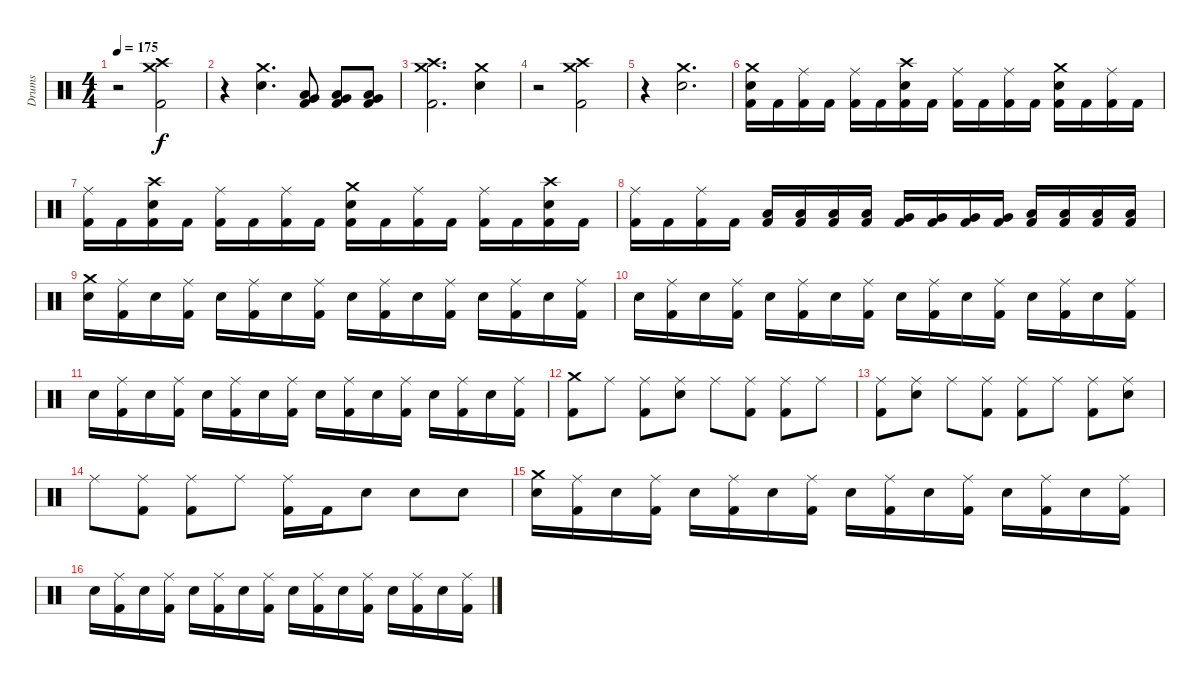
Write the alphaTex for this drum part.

\track ("Drums" "Drums") {instrument percussion}
\staff {score}
\articulation defaults
\ts (4 4)
\tempo 175
\clef neutral
\ks c
r.2{dy f} ("Crash medium (hit)" "Crash high (hit)" "Kick (hit) 2").2 |
r.4 ("Crash medium (hit)" "Electric Snare (hit)").4{d} ("Low Floor Tom (hit)" "Very Low Tom (hit)" "Kick (hit) 2").8 ("Low Floor Tom (hit)" "Very Low Tom (hit)" "Kick (hit) 2").8 ("Low Floor Tom (hit)" "Very Low Tom (hit)" "Kick (hit) 2").8 |
("Crash medium (hit)" "Crash high (hit)" "Kick (hit) 2").2{d} ("Crash medium (hit)" "Electric Snare (hit)").4 |
r.2 ("Crash medium (hit)" "Crash high (hit)" "Kick (hit) 2").2 |
r.4 ("Crash medium (hit)" "Electric Snare (hit)").2{d} |
("Crash medium (hit)" "Electric Snare (hit)" "Kick (hit) 2").16 "Kick (hit) 2".16 ("Ride (middle)" "Kick (hit) 2").16 "Kick (hit) 2".16 ("Ride (middle)" "Kick (hit) 2").16 "Kick (hit) 2".16 ("Crash high (hit)" "Electric Snare (hit)" "Kick (hit) 2").16 "Kick (hit) 2".16 ("Ride (middle)" "Kick (hit) 2").16 "Kick (hit) 2".16 ("Ride (middle)" "Kick (hit) 2").16 "Kick (hit) 2".16 ("Crash medium (hit)" "Electric Snare (hit)" "Kick (hit) 2").16 "Kick (hit) 2".16 ("Ride (middle)" "Kick (hit) 2").16 "Kick (hit) 2".16 |
("Ride (middle)" "Kick (hit) 2").16 "Kick (hit) 2".16 ("Crash high (hit)" "Electric Snare (hit)" "Kick (hit) 2").16 "Kick (hit) 2".16 ("Ride (middle)" "Kick (hit) 2").16 "Kick (hit) 2".16 ("Ride (middle)" "Kick (hit) 2").16 "Kick (hit) 2".16 ("Crash medium (hit)" "Electric Snare (hit)" "Kick (hit) 2").16 "Kick (hit) 2".16 ("Ride (middle)" "Kick (hit) 2").16 "Kick (hit) 2".16 ("Ride (middle)" "Kick (hit) 2").16 "Kick (hit) 2".16 ("Crash high (hit)" "Electric Snare (hit)" "Kick (hit) 2").16 "Kick (hit) 2".16 |
("Ride (middle)" "Kick (hit) 2").16 "Kick (hit) 2".16 ("Ride (middle)" "Kick (hit) 2").16 "Kick (hit) 2".16 ("Low Tom (hit)" "Kick (hit) 2").16 ("Low Tom (hit)" "Kick (hit) 2").16 ("Low Tom (hit)" "Kick (hit) 2").16 ("Low Tom (hit)" "Kick (hit) 2").16 ("Very Low Tom (hit)" "Kick (hit) 2").16 ("Very Low Tom (hit)" "Kick (hit) 2").16 ("Very Low Tom (hit)" "Kick (hit) 2").16 ("Very Low Tom (hit)" "Kick (hit) 2").16 ("Low Floor Tom (hit)" "Kick (hit) 2").16 ("Low Floor Tom (hit)" "Kick (hit) 2").16 ("Low Floor Tom (hit)" "Kick (hit) 2").16 ("Low Floor Tom (hit)" "Kick (hit) 2").16 |
("Crash medium (hit)" "Electric Snare (hit)").16 ("Ride (middle)" "Kick (hit) 2").16 "Electric Snare (hit)".16 ("Ride (middle)" "Kick (hit) 2").16 "Electric Snare (hit)".16 ("Ride (middle)" "Kick (hit) 2").16 "Electric Snare (hit)".16 ("Ride (middle)" "Kick (hit) 2").16 "Electric Snare (hit)".16 ("Ride (middle)" "Kick (hit) 2").16 "Electric Snare (hit)".16 ("Ride (middle)" "Kick (hit) 2").16 "Electric Snare (hit)".16 ("Ride (middle)" "Kick (hit) 2").16 "Electric Snare (hit)".16 ("Ride (middle)" "Kick (hit) 2").16 |
"Electric Snare (hit)".16 ("Ride (middle)" "Kick (hit) 2").16 "Electric Snare (hit)".16 ("Ride (middle)" "Kick (hit) 2").16 "Electric Snare (hit)".16 ("Ride (middle)" "Kick (hit) 2").16 "Electric Snare (hit)".16 ("Ride (middle)" "Kick (hit) 2").16 "Electric Snare (hit)".16 ("Ride (middle)" "Kick (hit) 2").16 "Electric Snare (hit)".16 ("Ride (middle)" "Kick (hit) 2").16 "Electric Snare (hit)".16 ("Ride (middle)" "Kick (hit) 2").16 "Electric Snare (hit)".16 ("Ride (middle)" "Kick (hit) 2").16 |
"Electric Snare (hit)".16 ("Ride (middle)" "Kick (hit) 2").16 "Electric Snare (hit)".16 ("Ride (middle)" "Kick (hit) 2").16 "Electric Snare (hit)".16 ("Ride (middle)" "Kick (hit) 2").16 "Electric Snare (hit)".16 ("Ride (middle)" "Kick (hit) 2").16 "Electric Snare (hit)".16 ("Ride (middle)" "Kick (hit) 2").16 "Electric Snare (hit)".16 ("Ride (middle)" "Kick (hit) 2").16 "Electric Snare (hit)".16 ("Ride (middle)" "Kick (hit) 2").16 "Electric Snare (hit)".16 ("Ride (middle)" "Kick (hit) 2").16 |
("Crash medium (hit)" "Kick (hit) 2").8 "Ride (middle)".8 ("Ride (middle)" "Kick (hit) 2").8 ("Ride (middle)" "Electric Snare (hit)").8 "Ride (middle)".8 ("Ride (middle)" "Kick (hit) 2").8 ("Ride (middle)" "Kick (hit) 2").8 "Ride (middle)".8 |
("Ride (middle)" "Kick (hit) 2").8 ("Ride (middle)" "Electric Snare (hit)").8 "Ride (middle)".8 ("Ride (middle)" "Kick (hit) 2").8 ("Ride (middle)" "Kick (hit) 2").8 "Ride (middle)".8 ("Ride (middle)" "Kick (hit) 2").8 ("Ride (middle)" "Electric Snare (hit)").8 |
"Ride (middle)".8 ("Ride (middle)" "Kick (hit) 2").8 ("Ride (middle)" "Kick (hit) 2").8 "Ride (middle)".8 ("Ride (middle)" "Kick (hit) 2").16 "Kick (hit) 2".16 "Electric Snare (hit)".8 "Electric Snare (hit)".8 "Electric Snare (hit)".8 |
("Crash medium (hit)" "Electric Snare (hit)").16 ("Ride (middle)" "Kick (hit) 2").16 "Electric Snare (hit)".16 ("Ride (middle)" "Kick (hit) 2").16 "Electric Snare (hit)".16 ("Ride (middle)" "Kick (hit) 2").16 "Electric Snare (hit)".16 ("Ride (middle)" "Kick (hit) 2").16 "Electric Snare (hit)".16 ("Ride (middle)" "Kick (hit) 2").16 "Electric Snare (hit)".16 ("Ride (middle)" "Kick (hit) 2").16 "Electric Snare (hit)".16 ("Ride (middle)" "Kick (hit) 2").16 "Electric Snare (hit)".16 ("Ride (middle)" "Kick (hit) 2").16 |
"Electric Snare (hit)".16 ("Ride (middle)" "Kick (hit) 2").16 "Electric Snare (hit)".16 ("Ride (middle)" "Kick (hit) 2").16 "Electric Snare (hit)".16 ("Ride (middle)" "Kick (hit) 2").16 "Electric Snare (hit)".16 ("Ride (middle)" "Kick (hit) 2").16 "Electric Snare (hit)".16 ("Ride (middle)" "Kick (hit) 2").16 "Electric Snare (hit)".16 ("Ride (middle)" "Kick (hit) 2").16 "Electric Snare (hit)".16 ("Ride (middle)" "Kick (hit) 2").16 "Electric Snare (hit)".16 ("Ride (middle)" "Kick (hit) 2").16
